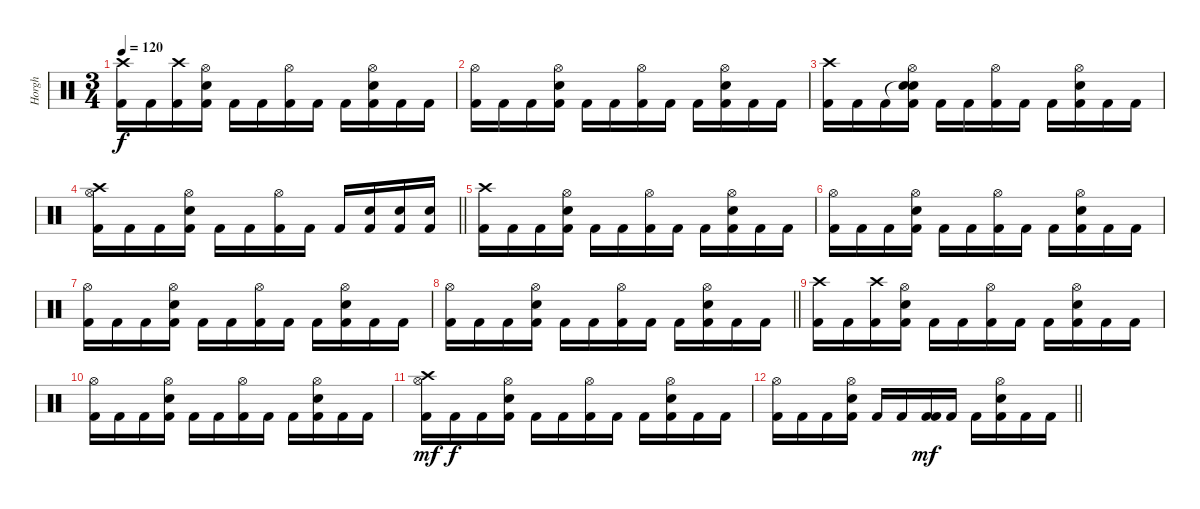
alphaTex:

\track ("Horgh" "Horgh") {instrument percussion}
\staff {score}
\articulation defaults
\ts (3 4)
\tempo 120
\clef neutral
\ks c
("Crash high (hit)" "Kick (hit) 2").16{dy f volume 9} "Kick (hit) 2".16 ("Crash high (hit)" "Kick (hit) 2").16 ("Snare (hit) 2" "Hi-Hat (open)" "Kick (hit) 2").16 "Kick (hit) 2".16 "Kick (hit) 2".16 ("Hi-Hat (open)" "Kick (hit) 2").16 "Kick (hit) 2".16 "Kick (hit) 2".16 ("Snare (hit) 2" "Hi-Hat (open)" "Kick (hit) 2").16 "Kick (hit) 2".16 "Kick (hit) 2".16 |
("Hi-Hat (open)" "Kick (hit) 2").16 "Kick (hit) 2".16 "Kick (hit) 2".16 ("Snare (hit) 2" "Hi-Hat (open)" "Kick (hit) 2").16 "Kick (hit) 2".16 "Kick (hit) 2".16 ("Hi-Hat (open)" "Kick (hit) 2").16 "Kick (hit) 2".16 "Kick (hit) 2".16 ("Snare (hit) 2" "Hi-Hat (open)" "Kick (hit) 2").16 "Kick (hit) 2".16 "Kick (hit) 2".16 |
("Crash high (hit)" "Kick (hit) 2").16{volume 6} "Kick (hit) 2".16 "Kick (hit) 2".16 ("Snare (hit)"{t} "Snare (hit) 2" "Hi-Hat (open)" "Kick (hit) 2").16 "Kick (hit) 2".16 "Kick (hit) 2".16 ("Hi-Hat (open)" "Kick (hit) 2").16 "Kick (hit) 2".16 "Kick (hit) 2".16 ("Snare (hit) 2" "Hi-Hat (open)" "Kick (hit) 2").16 "Kick (hit) 2".16 "Kick (hit) 2".16 |
\barLineRight lightlight
("Crash high (hit)" "Hi-Hat (open)" "Kick (hit) 2").16 "Kick (hit) 2".16 "Kick (hit) 2".16 ("Snare (hit) 2" "Hi-Hat (open)" "Kick (hit) 2").16 "Kick (hit) 2".16 "Kick (hit) 2".16 ("Hi-Hat (open)" "Kick (hit) 2").16 "Kick (hit) 2".16 "Kick (hit) 2".16 ("Snare (hit) 2" "Kick (hit) 2").16 ("Snare (hit) 2" "Kick (hit) 2").16 ("Snare (hit) 2" "Kick (hit) 2").16 |
("Crash high (hit)" "Kick (hit) 2").16{volume 4} "Kick (hit) 2".16 "Kick (hit) 2".16 ("Snare (hit) 2" "Hi-Hat (open)" "Kick (hit) 2").16 "Kick (hit) 2".16 "Kick (hit) 2".16 ("Hi-Hat (open)" "Kick (hit) 2").16 "Kick (hit) 2".16 "Kick (hit) 2".16 ("Snare (hit) 2" "Hi-Hat (open)" "Kick (hit) 2").16 "Kick (hit) 2".16 "Kick (hit) 2".16 |
("Hi-Hat (open)" "Kick (hit) 2").16 "Kick (hit) 2".16 "Kick (hit) 2".16 ("Snare (hit) 2" "Hi-Hat (open)" "Kick (hit) 2").16 "Kick (hit) 2".16 "Kick (hit) 2".16 ("Hi-Hat (open)" "Kick (hit) 2").16 "Kick (hit) 2".16 "Kick (hit) 2".16 ("Snare (hit) 2" "Hi-Hat (open)" "Kick (hit) 2").16 "Kick (hit) 2".16 "Kick (hit) 2".16 |
("Hi-Hat (open)" "Kick (hit) 2").16 "Kick (hit) 2".16 "Kick (hit) 2".16 ("Snare (hit) 2" "Hi-Hat (open)" "Kick (hit) 2").16 "Kick (hit) 2".16 "Kick (hit) 2".16 ("Hi-Hat (open)" "Kick (hit) 2").16 "Kick (hit) 2".16 "Kick (hit) 2".16 ("Snare (hit) 2" "Hi-Hat (open)" "Kick (hit) 2").16 "Kick (hit) 2".16 "Kick (hit) 2".16 |
\barLineRight lightlight
("Hi-Hat (open)" "Kick (hit) 2").16 "Kick (hit) 2".16 "Kick (hit) 2".16 ("Snare (hit) 2" "Hi-Hat (open)" "Kick (hit) 2").16 "Kick (hit) 2".16 "Kick (hit) 2".16 ("Hi-Hat (open)" "Kick (hit) 2").16 "Kick (hit) 2".16 "Kick (hit) 2".16 ("Snare (hit) 2" "Hi-Hat (open)" "Kick (hit) 2").16 "Kick (hit) 2".16 "Kick (hit) 2".16 |
("Crash high (hit)" "Kick (hit) 2").16{volume 3} "Kick (hit) 2".16 ("Crash high (hit)" "Kick (hit) 2").16 ("Snare (hit) 2" "Hi-Hat (open)" "Kick (hit) 2").16 "Kick (hit) 2".16 "Kick (hit) 2".16 ("Hi-Hat (open)" "Kick (hit) 2").16 "Kick (hit) 2".16 "Kick (hit) 2".16 ("Snare (hit) 2" "Hi-Hat (open)" "Kick (hit) 2").16 "Kick (hit) 2".16 "Kick (hit) 2".16 |
("Hi-Hat (open)" "Kick (hit) 2").16 "Kick (hit) 2".16 "Kick (hit) 2".16 ("Snare (hit) 2" "Hi-Hat (open)" "Kick (hit) 2").16 "Kick (hit) 2".16 "Kick (hit) 2".16 ("Hi-Hat (open)" "Kick (hit) 2").16 "Kick (hit) 2".16 "Kick (hit) 2".16 ("Snare (hit) 2" "Hi-Hat (open)" "Kick (hit) 2").16 "Kick (hit) 2".16 "Kick (hit) 2".16 |
("Crash high (hit)" "Hi-Hat (open)" "Kick (hit) 2").16{dy mf volume 2} "Kick (hit) 2".16{dy f} "Kick (hit) 2".16 ("Snare (hit) 2" "Hi-Hat (open)" "Kick (hit) 2").16 "Kick (hit) 2".16 "Kick (hit) 2".16 ("Hi-Hat (open)" "Kick (hit) 2").16 "Kick (hit) 2".16 "Kick (hit) 2".16 ("Snare (hit) 2" "Hi-Hat (open)" "Kick (hit) 2").16 "Kick (hit) 2".16 "Kick (hit) 2".16 |
\barLineRight lightlight
("Hi-Hat (open)" "Kick (hit) 2").16 "Kick (hit) 2".16 "Kick (hit) 2".16 ("Snare (hit) 2" "Hi-Hat (open)" "Kick (hit) 2").16 "Kick (hit) 2".16 "Kick (hit) 2".16 ("Kick (hit) 2" "Kick (hit) 2").16{dy mf} "Kick (hit) 2".16 "Kick (hit) 2".16 ("Snare (hit) 2" "Hi-Hat (open)" "Kick (hit) 2").16 "Kick (hit) 2".16 "Kick (hit) 2".16
